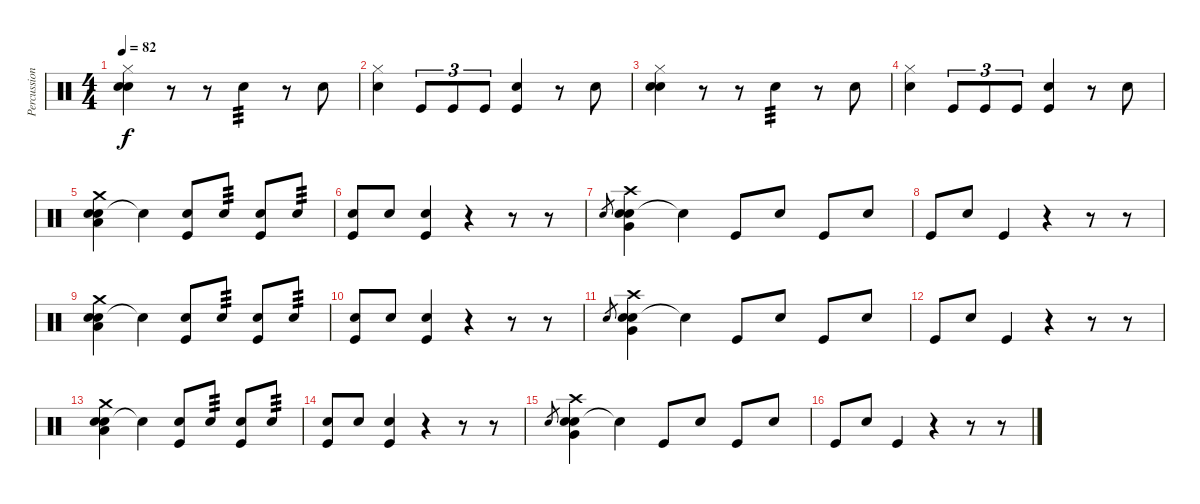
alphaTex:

\track ("Percussion" "Percussion") {instrument percussion}
\staff {score}
\articulation defaults
\ts (4 4)
\tempo 82
\clef neutral
\ks c
("Snare (hit) 2" "Hi-Hat (closed)" "Electric Snare (hit)").4{dy f} r.8 r.8 "Snare (hit) 2".4{tp 3} r.8 "Snare (hit) 2".8 |
("Snare (hit) 2" "Hi-Hat (closed)").4 "Kick (hit)".8{tu (3 2)} "Kick (hit)".8{tu (3 2)} "Kick (hit)".8{tu (3 2)} ("Snare (hit) 2" "Kick (hit)").4 r.8 "Snare (hit) 2".8 |
("Snare (hit) 2" "Hi-Hat (closed)" "Electric Snare (hit)").4 r.8 r.8 "Snare (hit) 2".4{tp 3} r.8 "Snare (hit) 2".8 |
("Snare (hit) 2" "Hi-Hat (closed)").4 "Kick (hit)".8{tu (3 2)} "Kick (hit)".8{tu (3 2)} "Kick (hit)".8{tu (3 2)} ("Snare (hit) 2" "Kick (hit)").4 r.8 "Snare (hit) 2".8 |
("Snare (hit) 2" "Electric Snare (hit)" "Low Floor Tom (hit)" "Crash medium (hit)").4 "Snare (hit)"{t}.4 ("Snare (hit) 2" "Kick (hit)").8 "Electric Snare (hit)".8{tp 3} ("Snare (hit) 2" "Kick (hit)").8 "Electric Snare (hit)".8{tp 3} |
("Snare (hit) 2" "Kick (hit)").8 "Electric Snare (hit)".8 ("Snare (hit) 2" "Kick (hit)").4 r.4 r.8 r.8 |
"Snare (hit) 2".8{gr} ("Snare (hit) 2" "Electric Snare (hit)" "Very Low Tom (hit)" "Crash high (hit)").4 "Snare (hit)"{t}.4 "Kick (hit)".8 "Electric Snare (hit)".8 "Kick (hit)".8 "Electric Snare (hit)".8 |
"Kick (hit)".8 "Electric Snare (hit)".8 "Kick (hit)".4 r.4 r.8 r.8 |
("Snare (hit) 2" "Electric Snare (hit)" "Low Floor Tom (hit)" "Crash medium (hit)").4 "Snare (hit)"{t}.4 ("Snare (hit) 2" "Kick (hit)").8 "Electric Snare (hit)".8{tp 3} ("Snare (hit) 2" "Kick (hit)").8 "Electric Snare (hit)".8{tp 3} |
("Snare (hit) 2" "Kick (hit)").8 "Electric Snare (hit)".8 ("Snare (hit) 2" "Kick (hit)").4 r.4 r.8 r.8 |
"Snare (hit) 2".8{gr} ("Snare (hit) 2" "Electric Snare (hit)" "Very Low Tom (hit)" "Crash high (hit)").4 "Snare (hit)"{t}.4 "Kick (hit)".8 "Electric Snare (hit)".8 "Kick (hit)".8 "Electric Snare (hit)".8 |
"Kick (hit)".8 "Electric Snare (hit)".8 "Kick (hit)".4 r.4 r.8 r.8 |
("Snare (hit) 2" "Electric Snare (hit)" "Low Floor Tom (hit)" "Crash medium (hit)").4 "Snare (hit)"{t}.4 ("Snare (hit) 2" "Kick (hit)").8 "Electric Snare (hit)".8{tp 3} ("Snare (hit) 2" "Kick (hit)").8 "Electric Snare (hit)".8{tp 3} |
("Snare (hit) 2" "Kick (hit)").8 "Electric Snare (hit)".8 ("Snare (hit) 2" "Kick (hit)").4 r.4 r.8 r.8 |
"Snare (hit) 2".8{gr} ("Snare (hit) 2" "Electric Snare (hit)" "Very Low Tom (hit)" "Crash high (hit)").4 "Snare (hit)"{t}.4 "Kick (hit)".8 "Electric Snare (hit)".8 "Kick (hit)".8 "Electric Snare (hit)".8 |
"Kick (hit)".8 "Electric Snare (hit)".8 "Kick (hit)".4 r.4 r.8 r.8
